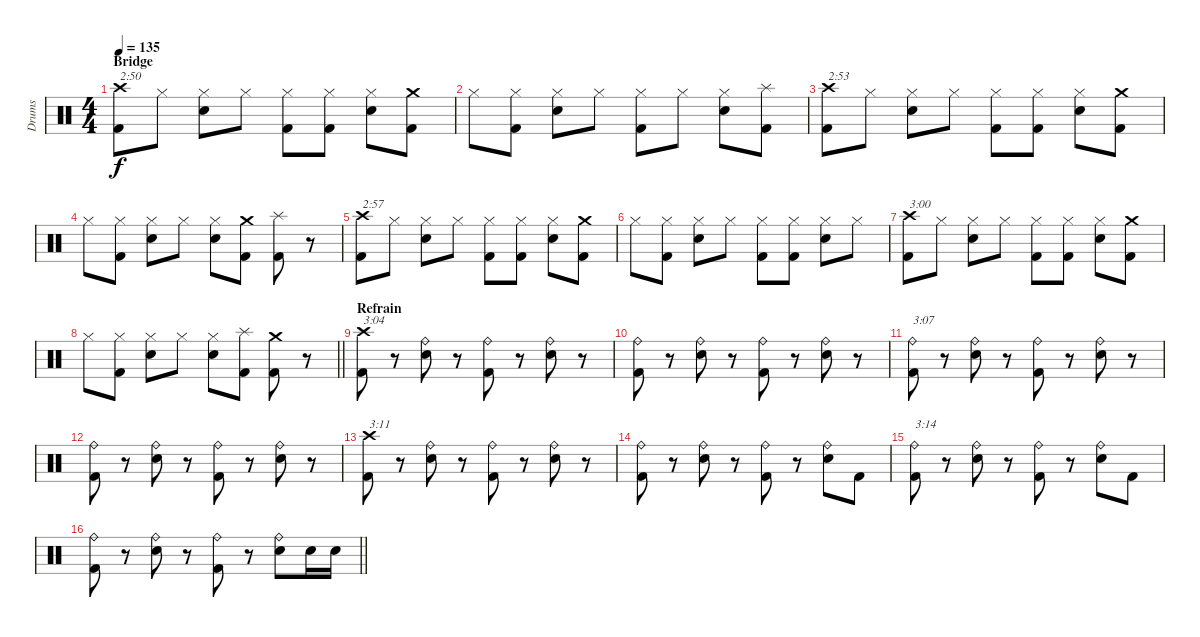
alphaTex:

\track ("Drums" "Drums") {instrument percussion}
\staff {score}
\articulation defaults
\ts (4 4)
\section ("" "Bridge")
\tempo 135
\clef neutral
\ks c
("Crash high (hit)" "Kick (hit) 2").8{txt "2:50" dy f} "Hi-Hat (closed)".8 ("Hi-Hat (closed)" "Electric Snare (hit)").8 "Hi-Hat (closed)".8 ("Hi-Hat (closed)" "Kick (hit) 2").8 ("Hi-Hat (closed)" "Kick (hit) 2").8 ("Hi-Hat (closed)" "Electric Snare (hit)").8 ("Crash medium (hit)" "Kick (hit) 2").8 |
"Hi-Hat (closed)".8 ("Hi-Hat (closed)" "Kick (hit) 2").8 ("Hi-Hat (closed)" "Electric Snare (hit)").8 "Hi-Hat (closed)".8 ("Hi-Hat (closed)" "Kick (hit) 2").8 "Hi-Hat (closed)".8 ("Hi-Hat (closed)" "Electric Snare (hit)").8 ("Splash (hit)" "Kick (hit) 2").8 |
("Crash high (hit)" "Kick (hit) 2").8{txt "2:53"} "Hi-Hat (closed)".8 ("Hi-Hat (closed)" "Electric Snare (hit)").8 "Hi-Hat (closed)".8 ("Hi-Hat (closed)" "Kick (hit) 2").8 ("Hi-Hat (closed)" "Kick (hit) 2").8 ("Hi-Hat (closed)" "Electric Snare (hit)").8 ("Crash medium (hit)" "Kick (hit) 2").8 |
"Hi-Hat (closed)".8 ("Hi-Hat (closed)" "Kick (hit) 2").8 ("Hi-Hat (closed)" "Electric Snare (hit)").8 "Hi-Hat (closed)".8 ("Hi-Hat (closed)" "Electric Snare (hit)").8 ("Crash medium (hit)" "Kick (hit) 2").8 ("Splash (hit)" "Kick (hit) 2").8 r.8 |
("Crash high (hit)" "Kick (hit) 2").8{txt "2:57"} "Hi-Hat (closed)".8 ("Hi-Hat (closed)" "Electric Snare (hit)").8 "Hi-Hat (closed)".8 ("Hi-Hat (closed)" "Kick (hit) 2").8 ("Hi-Hat (closed)" "Kick (hit) 2").8 ("Hi-Hat (closed)" "Electric Snare (hit)").8 ("Crash medium (hit)" "Kick (hit) 2").8 |
"Hi-Hat (closed)".8 ("Hi-Hat (closed)" "Kick (hit) 2").8 ("Hi-Hat (closed)" "Electric Snare (hit)").8 "Hi-Hat (closed)".8 ("Hi-Hat (closed)" "Kick (hit) 2").8 ("Hi-Hat (closed)" "Kick (hit) 2").8 ("Hi-Hat (closed)" "Electric Snare (hit)").8 "Hi-Hat (closed)".8 |
("Crash high (hit)" "Kick (hit) 2").8{txt "3:00"} "Hi-Hat (closed)".8 ("Hi-Hat (closed)" "Electric Snare (hit)").8 "Hi-Hat (closed)".8 ("Hi-Hat (closed)" "Kick (hit) 2").8 ("Hi-Hat (closed)" "Kick (hit) 2").8 ("Hi-Hat (closed)" "Electric Snare (hit)").8 ("Crash medium (hit)" "Kick (hit) 2").8 |
\barLineRight lightlight "Hi-Hat (closed)".8
("Hi-Hat (closed)" "Kick (hit) 2").8 ("Hi-Hat (closed)" "Electric Snare (hit)").8 "Hi-Hat (closed)".8 ("Hi-Hat (closed)" "Electric Snare (hit)").8 ("Splash (hit)" "Kick (hit) 2").8 ("Crash medium (hit)" "Kick (hit) 2").8 r.8 |
\section ("" "Refrain")
("Crash high (hit)" "Kick (hit) 2").8{txt "3:04"} r.8 ("Ride (bell)" "Electric Snare (hit)").8 r.8 ("Ride (bell)" "Kick (hit) 2").8 r.8 ("Ride (bell)" "Electric Snare (hit)").8 r.8 |
("Ride (bell)" "Kick (hit) 2").8 r.8 ("Ride (bell)" "Electric Snare (hit)").8 r.8 ("Ride (bell)" "Kick (hit) 2").8 r.8 ("Ride (bell)" "Electric Snare (hit)").8 r.8 |
("Ride (bell)" "Kick (hit) 2").8{txt "3:07"} r.8 ("Ride (bell)" "Electric Snare (hit)").8 r.8 ("Ride (bell)" "Kick (hit) 2").8 r.8 ("Ride (bell)" "Electric Snare (hit)").8 r.8 |
("Ride (bell)" "Kick (hit) 2").8 r.8 ("Ride (bell)" "Electric Snare (hit)").8 r.8 ("Ride (bell)" "Kick (hit) 2").8 r.8 ("Ride (bell)" "Electric Snare (hit)").8 r.8 |
("Crash high (hit)" "Kick (hit) 2").8{txt "3:11"} r.8 ("Ride (bell)" "Electric Snare (hit)").8 r.8 ("Ride (bell)" "Kick (hit) 2").8 r.8 ("Ride (bell)" "Electric Snare (hit)").8 r.8 |
("Ride (bell)" "Kick (hit) 2").8 r.8 ("Ride (bell)" "Electric Snare (hit)").8 r.8 ("Ride (bell)" "Kick (hit) 2").8 r.8 ("Ride (bell)" "Electric Snare (hit)").8 "Kick (hit) 2".8 |
("Ride (bell)" "Kick (hit) 2").8{txt "3:14"} r.8 ("Ride (bell)" "Electric Snare (hit)").8 r.8 ("Ride (bell)" "Kick (hit) 2").8 r.8 ("Ride (bell)" "Electric Snare (hit)").8 "Kick (hit) 2".8 |
\barLineRight lightlight
("Ride (bell)" "Kick (hit) 2").8 r.8 ("Ride (bell)" "Electric Snare (hit)").8 r.8 ("Ride (bell)" "Kick (hit) 2").8 r.8 ("Ride (bell)" "Electric Snare (hit)").8 "Electric Snare (hit)".16 "Electric Snare (hit)".16
